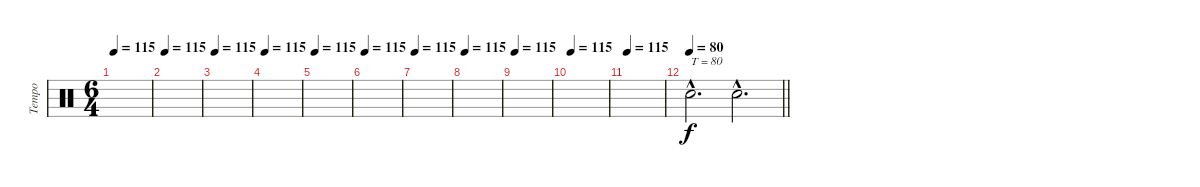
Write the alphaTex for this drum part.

\track ("Tempo" "Tempo") {instrument percussion}
\staff {score}
\articulation defaults
\ts (6 4)
\tempo 115
\clef neutral
\ks c
|
\tempo 115
|
\tempo 115
|
\tempo 115
|
\tempo 115
|
\tempo 115
|
\tempo 115
|
\tempo 115
|
\tempo 115
|
\tempo 115
|
\tempo 115
|
\tempo 80
\barLineRight lightlight "Snare (hit)"{hac x}.2{d txt "T = 80"} "Snare (hit)"{hac x}.2{d}
